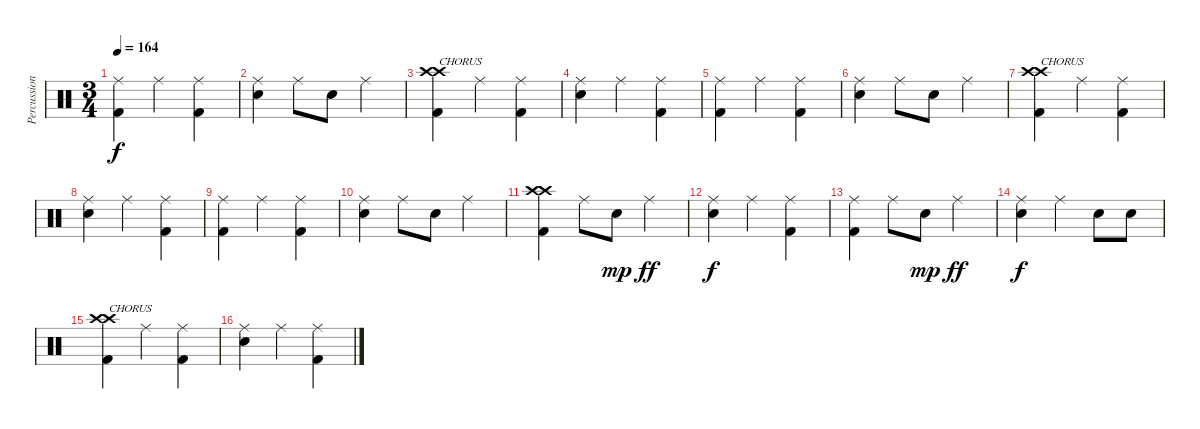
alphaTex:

\track ("Percussion" "Percussion") {instrument percussion}
\staff {score}
\articulation defaults
\ts (3 4)
\tempo 164
\clef neutral
\ks c
("Ride (middle)" "Kick (hit) 2").4{dy f} "Ride (middle)".4 ("Ride (middle)" "Kick (hit) 2").4 |
("Ride (middle)" "Snare (hit) 2").4 "Ride (middle)".8 "Snare (hit) 2".8 "Ride (middle)".4 |
("Crash high (hit)" "Crash high (hit)" "Kick (hit) 2").4{txt "CHORUS"} "Ride (middle)".4 ("Ride (middle)" "Kick (hit) 2").4 |
("Ride (middle)" "Snare (hit) 2").4 "Ride (middle)".4 ("Ride (middle)" "Kick (hit) 2").4 |
("Ride (middle)" "Kick (hit) 2").4 "Ride (middle)".4 ("Ride (middle)" "Kick (hit) 2").4 |
("Ride (middle)" "Snare (hit) 2").4 "Ride (middle)".8 "Snare (hit) 2".8 "Ride (middle)".4 |
("Crash high (hit)" "Crash high (hit)" "Kick (hit) 2").4{txt "CHORUS"} "Ride (middle)".4 ("Ride (middle)" "Kick (hit) 2").4 |
("Ride (middle)" "Snare (hit) 2").4 "Ride (middle)".4 ("Ride (middle)" "Kick (hit) 2").4 |
("Ride (middle)" "Kick (hit) 2").4 "Ride (middle)".4 ("Ride (middle)" "Kick (hit) 2").4 |
("Ride (middle)" "Snare (hit) 2").4 "Ride (middle)".8 "Snare (hit) 2".8 "Ride (middle)".4 |
("Crash high (hit)" "Crash high (hit)" "Kick (hit) 2").4 "Ride (middle)".8 "Snare (hit) 2".8{dy mp} "Ride (middle)".4{dy ff} |
("Ride (middle)" "Snare (hit) 2").4{dy f} "Ride (middle)".4 ("Ride (middle)" "Kick (hit) 2").4 |
("Ride (middle)" "Kick (hit) 2").4 "Ride (middle)".8 "Snare (hit) 2".8{dy mp} "Ride (middle)".4{dy ff} |
("Ride (middle)" "Snare (hit) 2").4{dy f} "Ride (middle)".4 "Snare (hit) 2".8 "Snare (hit) 2".8 |
("Crash high (hit)" "Crash high (hit)" "Kick (hit) 2").4{txt "CHORUS"} "Ride (middle)".4 ("Ride (middle)" "Kick (hit) 2").4 |
("Ride (middle)" "Snare (hit) 2").4 "Ride (middle)".4 ("Ride (middle)" "Kick (hit) 2").4
